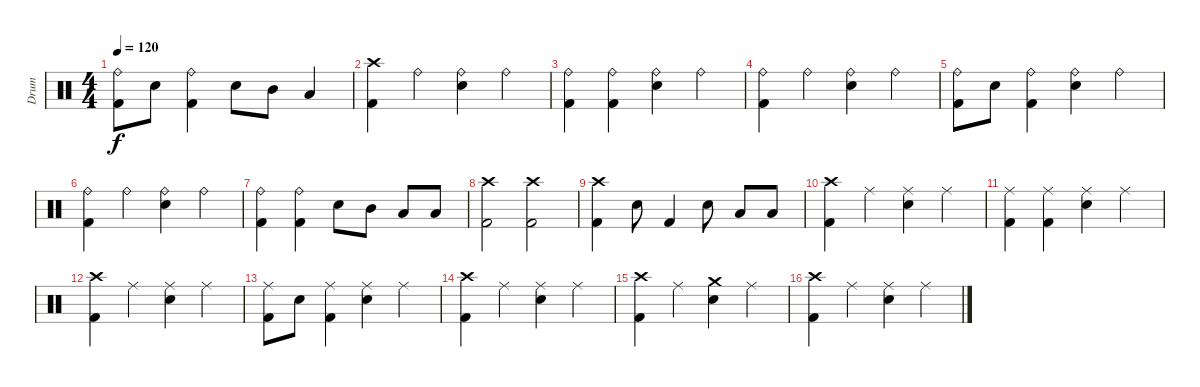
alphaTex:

\track ("Drum" "Drum") {instrument percussion}
\staff {score}
\articulation defaults
\ts (4 4)
\tempo 120
\clef neutral
\ks c
("Ride (bell)" "Kick (hit) 2").8{dy f} "Snare (hit) 2".8 ("Ride (bell)" "Kick (hit) 2").4 "Snare (hit) 2".8 "Mid Tom (hit)".8 "Low Tom (hit)".4 |
("Crash high (hit)" "Kick (hit) 2").4 "Ride (bell)".4 ("Ride (bell)" "Snare (hit) 2").4 "Ride (bell)".4 |
("Ride (bell)" "Kick (hit) 2").4 ("Ride (bell)" "Kick (hit) 2").4 ("Ride (bell)" "Snare (hit) 2").4 "Ride (bell)".4 |
("Ride (bell)" "Kick (hit) 2").4 "Ride (bell)".4 ("Ride (bell)" "Snare (hit) 2").4 "Ride (bell)".4 |
("Ride (bell)" "Kick (hit) 2").8 "Snare (hit) 2".8 ("Ride (bell)" "Kick (hit) 2").4 ("Ride (bell)" "Snare (hit) 2").4 "Ride (bell)".4 |
("Ride (bell)" "Kick (hit) 2").4 "Ride (bell)".4 ("Ride (bell)" "Snare (hit) 2").4 "Ride (bell)".4 |
("Ride (bell)" "Kick (hit) 2").4 ("Ride (bell)" "Kick (hit) 2").4 "Snare (hit) 2".8 "Mid Tom (hit)".8 "Low Tom (hit)".8 "Low Floor Tom (hit)".8 |
("Crash high (hit)" "Kick (hit) 2").2 ("Kick (hit) 2" "Crash high (hit)").2 |
("Kick (hit) 2" "Crash high (hit)").4 "Snare (hit) 2".8 "Kick (hit) 2".4 "Snare (hit) 2".8 "Low Tom (hit)".8 "Low Floor Tom (hit)".8 |
("Crash high (hit)" "Kick (hit) 2").4 "Ride (middle)".4 ("Ride (middle)" "Snare (hit) 2").4 "Ride (middle)".4 |
("Ride (middle)" "Kick (hit) 2").4 ("Ride (middle)" "Kick (hit) 2").4 ("Snare (hit) 2" "Ride (middle)").4 "Ride (middle)".4 |
("Crash high (hit)" "Kick (hit) 2").4 "Ride (middle)".4 ("Ride (middle)" "Snare (hit) 2").4 "Ride (middle)".4 |
("Ride (middle)" "Kick (hit) 2").8 "Snare (hit) 2".8 ("Ride (middle)" "Kick (hit) 2").4 ("Ride (middle)" "Snare (hit) 2").4 "Ride (middle)".4 |
("Crash high (hit)" "Kick (hit) 2").4 "Ride (middle)".4 ("Ride (middle)" "Snare (hit) 2").4 "Ride (middle)".4 |
("Crash high (hit)" "Kick (hit) 2").4 "Ride (middle)".4 ("Crash medium (hit)" "Snare (hit) 2").4 "Ride (middle)".4 |
("Crash high (hit)" "Kick (hit) 2").4 "Ride (middle)".4 ("Ride (middle)" "Snare (hit) 2").4 "Ride (middle)".4
